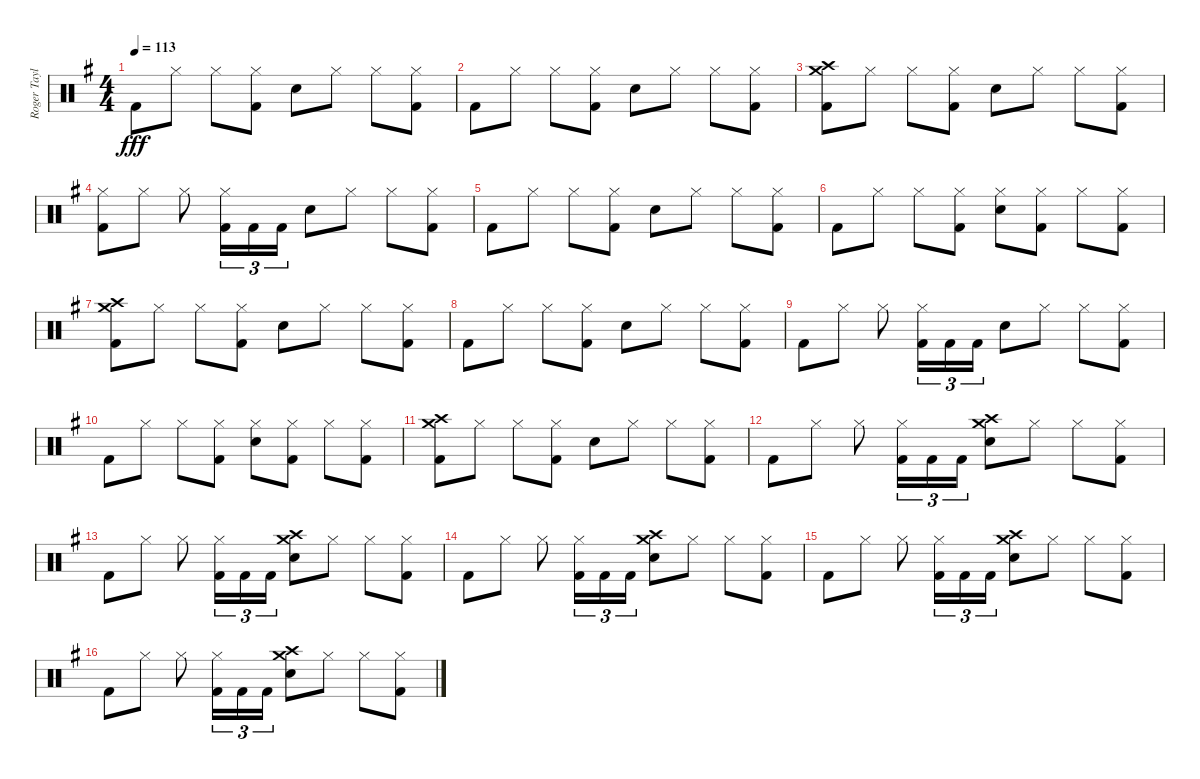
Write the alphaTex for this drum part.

\track ("Roger Taylor" "Roger Tayl") {instrument percussion}
\staff {score}
\articulation defaults
\ts (4 4)
\tempo 113
\clef neutral
\ks g "Kick (hit) 2".8{dy fff} "Hi-Hat (closed)".8 "Hi-Hat (closed)".8
("Kick (hit) 2" "Hi-Hat (closed)").8 "Snare (hit) 2".8 "Hi-Hat (closed)".8 "Hi-Hat (closed)".8 ("Kick (hit) 2" "Hi-Hat (closed)").8 |
"Kick (hit) 2".8 "Hi-Hat (closed)".8 "Hi-Hat (closed)".8 ("Kick (hit) 2" "Hi-Hat (closed)").8 "Snare (hit) 2".8 "Hi-Hat (closed)".8 "Hi-Hat (closed)".8 ("Kick (hit) 2" "Hi-Hat (closed)").8 |
("Crash high (hit)" "Crash medium (hit)" "Kick (hit) 2").8 "Hi-Hat (closed)".8 "Hi-Hat (closed)".8 ("Kick (hit) 2" "Hi-Hat (closed)").8 "Snare (hit) 2".8 "Hi-Hat (closed)".8 "Hi-Hat (closed)".8 ("Kick (hit) 2" "Hi-Hat (closed)").8 |
("Hi-Hat (closed)" "Kick (hit) 2").8 "Hi-Hat (closed)".8 "Hi-Hat (closed)".8 ("Kick (hit) 2" "Hi-Hat (closed)").16{tu (3 2)} "Kick (hit) 2".16{tu (3 2)} "Kick (hit) 2".16{tu (3 2)} "Snare (hit) 2".8 "Hi-Hat (closed)".8 "Hi-Hat (closed)".8 ("Kick (hit) 2" "Hi-Hat (closed)").8 |
"Kick (hit) 2".8 "Hi-Hat (closed)".8 "Hi-Hat (closed)".8 ("Kick (hit) 2" "Hi-Hat (closed)").8 "Snare (hit) 2".8 "Hi-Hat (closed)".8 "Hi-Hat (closed)".8 ("Kick (hit) 2" "Hi-Hat (closed)").8 |
"Kick (hit) 2".8 "Hi-Hat (closed)".8 "Hi-Hat (closed)".8 ("Kick (hit) 2" "Hi-Hat (closed)").8 ("Snare (hit) 2" "Hi-Hat (closed)").8 ("Kick (hit) 2" "Hi-Hat (closed)").8 "Hi-Hat (closed)".8 ("Kick (hit) 2" "Hi-Hat (closed)").8 |
("Crash high (hit)" "Crash medium (hit)" "Kick (hit) 2").8 "Hi-Hat (closed)".8 "Hi-Hat (closed)".8 ("Kick (hit) 2" "Hi-Hat (closed)").8 "Snare (hit) 2".8 "Hi-Hat (closed)".8 "Hi-Hat (closed)".8 ("Kick (hit) 2" "Hi-Hat (closed)").8 |
"Kick (hit) 2".8 "Hi-Hat (closed)".8 "Hi-Hat (closed)".8 ("Kick (hit) 2" "Hi-Hat (closed)").8 "Snare (hit) 2".8 "Hi-Hat (closed)".8 "Hi-Hat (closed)".8 ("Kick (hit) 2" "Hi-Hat (closed)").8 |
"Kick (hit) 2".8 "Hi-Hat (closed)".8 "Hi-Hat (closed)".8 ("Kick (hit) 2" "Hi-Hat (closed)").16{tu (3 2)} "Kick (hit) 2".16{tu (3 2)} "Kick (hit) 2".16{tu (3 2)} "Snare (hit) 2".8 "Hi-Hat (closed)".8 "Hi-Hat (closed)".8 ("Kick (hit) 2" "Hi-Hat (closed)").8 |
"Kick (hit) 2".8 "Hi-Hat (closed)".8 "Hi-Hat (closed)".8 ("Kick (hit) 2" "Hi-Hat (closed)").8 ("Snare (hit) 2" "Hi-Hat (closed)").8 ("Kick (hit) 2" "Hi-Hat (closed)").8 "Hi-Hat (closed)".8 ("Kick (hit) 2" "Hi-Hat (closed)").8 |
("Crash high (hit)" "Crash medium (hit)" "Kick (hit) 2").8 "Hi-Hat (closed)".8 "Hi-Hat (closed)".8 ("Kick (hit) 2" "Hi-Hat (closed)").8 "Snare (hit) 2".8 "Hi-Hat (closed)".8 "Hi-Hat (closed)".8 ("Kick (hit) 2" "Hi-Hat (closed)").8 |
"Kick (hit) 2".8 "Hi-Hat (closed)".8 "Hi-Hat (closed)".8 ("Kick (hit) 2" "Hi-Hat (closed)").16{tu (3 2)} "Kick (hit) 2".16{tu (3 2)} "Kick (hit) 2".16{tu (3 2)} ("Snare (hit) 2" "Crash high (hit)" "Crash medium (hit)").8 "Hi-Hat (closed)".8 "Hi-Hat (closed)".8 ("Kick (hit) 2" "Hi-Hat (closed)").8 |
"Kick (hit) 2".8 "Hi-Hat (closed)".8 "Hi-Hat (closed)".8 ("Kick (hit) 2" "Hi-Hat (closed)").16{tu (3 2)} "Kick (hit) 2".16{tu (3 2)} "Kick (hit) 2".16{tu (3 2)} ("Snare (hit) 2" "Crash high (hit)" "Crash medium (hit)").8 "Hi-Hat (closed)".8 "Hi-Hat (closed)".8 ("Kick (hit) 2" "Hi-Hat (closed)").8 |
"Kick (hit) 2".8 "Hi-Hat (closed)".8 "Hi-Hat (closed)".8 ("Kick (hit) 2" "Hi-Hat (closed)").16{tu (3 2)} "Kick (hit) 2".16{tu (3 2)} "Kick (hit) 2".16{tu (3 2)} ("Snare (hit) 2" "Crash high (hit)" "Crash medium (hit)").8 "Hi-Hat (closed)".8 "Hi-Hat (closed)".8 ("Kick (hit) 2" "Hi-Hat (closed)").8 |
"Kick (hit) 2".8 "Hi-Hat (closed)".8 "Hi-Hat (closed)".8 ("Kick (hit) 2" "Hi-Hat (closed)").16{tu (3 2)} "Kick (hit) 2".16{tu (3 2)} "Kick (hit) 2".16{tu (3 2)} ("Snare (hit) 2" "Crash high (hit)" "Crash medium (hit)").8 "Hi-Hat (closed)".8 "Hi-Hat (closed)".8 ("Kick (hit) 2" "Hi-Hat (closed)").8 |
"Kick (hit) 2".8 "Hi-Hat (closed)".8 "Hi-Hat (closed)".8 ("Kick (hit) 2" "Hi-Hat (closed)").16{tu (3 2)} "Kick (hit) 2".16{tu (3 2)} "Kick (hit) 2".16{tu (3 2)} ("Snare (hit) 2" "Crash high (hit)" "Crash medium (hit)").8 "Hi-Hat (closed)".8 "Hi-Hat (closed)".8 ("Kick (hit) 2" "Hi-Hat (closed)").8
